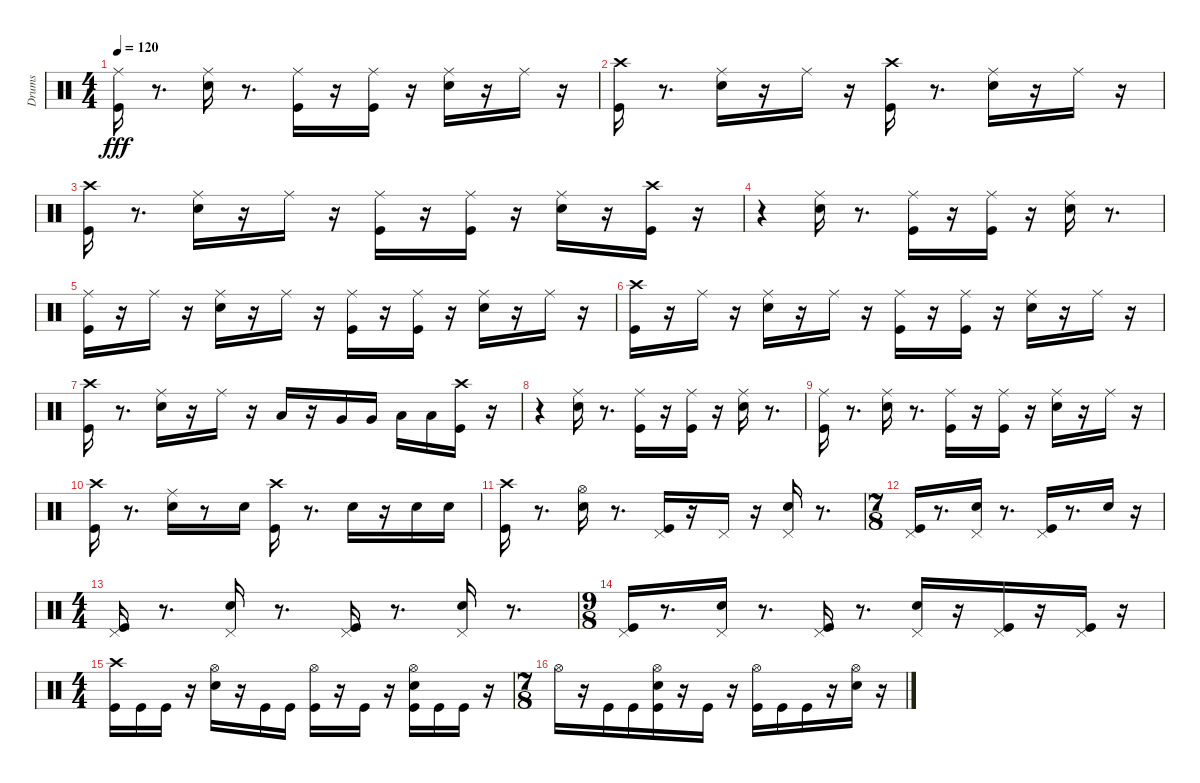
\track ("Drums" "Drums") {instrument percussion}
\staff {score}
\articulation defaults
\ts (4 4)
\tempo 120
\clef neutral
\ks c
("Ride (middle)" "Kick (hit)").16{dy fff} r.8{d} ("Snare (hit) 2" "Ride (middle)").16 r.8{d} ("Kick (hit)" "Ride (middle)").16 r.16 ("Kick (hit)" "Ride (middle)").16 r.16 ("Snare (hit) 2" "Ride (middle)").16 r.16 "Ride (middle)".16 r.16 |
("Crash high (hit)" "Kick (hit)").16 r.8{d} ("Ride (middle)" "Snare (hit) 2").16 r.16 "Ride (middle)".16 r.16 ("Crash high (hit)" "Kick (hit)").16 r.8{d} ("Ride (middle)" "Snare (hit) 2").16 r.16 "Ride (middle)".16 r.16 |
("Kick (hit)" "Crash high (hit)").16 r.8{d} ("Snare (hit) 2" "Ride (middle)").16 r.16 "Ride (middle)".16 r.16 ("Kick (hit)" "Ride (middle)").16 r.16 ("Kick (hit)" "Ride (middle)").16 r.16 ("Snare (hit) 2" "Ride (middle)").16 r.16 ("Crash high (hit)" "Kick (hit)").16 r.16 |
r.4 ("Snare (hit) 2" "Ride (middle)").16 r.8{d} ("Kick (hit)" "Ride (middle)").16 r.16 ("Kick (hit)" "Ride (middle)").16 r.16 ("Snare (hit) 2" "Ride (middle)").16 r.8{d} |
("Kick (hit)" "Ride (middle)").16 r.16 "Ride (middle)".16 r.16 ("Snare (hit) 2" "Ride (middle)").16 r.16 "Ride (middle)".16 r.16 ("Kick (hit)" "Ride (middle)").16 r.16 ("Kick (hit)" "Ride (middle)").16 r.16 ("Snare (hit) 2" "Ride (middle)").16 r.16 "Ride (middle)".16 r.16 |
("Crash high (hit)" "Kick (hit)").16 r.16 "Ride (middle)".16 r.16 ("Snare (hit) 2" "Ride (middle)").16 r.16 "Ride (middle)".16 r.16 ("Kick (hit)" "Ride (middle)").16 r.16 ("Kick (hit)" "Ride (middle)").16 r.16 ("Snare (hit) 2" "Ride (middle)").16 r.16 "Ride (middle)".16 r.16 |
("Crash high (hit)" "Kick (hit)").16 r.8{d} ("Ride (middle)" "Snare (hit) 2").16 r.16 "Ride (middle)".16 r.16 "Low Tom (hit)".16 r.16 "Very Low Tom (hit)".16 "Very Low Tom (hit)".16 "Low Floor Tom (hit)".16 "Low Floor Tom (hit)".16 ("Kick (hit)" "Crash high (hit)").16 r.16 |
r.4 ("Snare (hit) 2" "Ride (middle)").16 r.8{d} ("Kick (hit)" "Ride (middle)").16 r.16 ("Kick (hit)" "Ride (middle)").16 r.16 ("Snare (hit) 2" "Ride (middle)").16 r.8{d} |
("Kick (hit)" "Ride (middle)").16 r.8{d} ("Snare (hit) 2" "Ride (middle)").16 r.8{d} ("Kick (hit)" "Ride (middle)").16 r.16 ("Kick (hit)" "Ride (middle)").16 r.16 ("Snare (hit) 2" "Ride (middle)").16 r.16 "Ride (middle)".16 r.16 |
("Crash high (hit)" "Kick (hit)").16 r.8{d} ("Ride (middle)" "Snare (hit) 2").16 r.8 "Snare (hit) 2".16 ("Crash high (hit)" "Kick (hit)").16 r.8{d} "Snare (hit) 2".16 r.16 "Snare (hit) 2".16 "Snare (hit) 2".16 |
("Kick (hit)" "Crash high (hit)").16 r.8{d} ("Snare (hit) 2" "Hi-Hat (open)").16 r.8{d} ("Kick (hit)" "Pedal Hi-Hat (hit)").16 r.16 "Pedal Hi-Hat (hit)".16 r.16 ("Snare (hit) 2" "Pedal Hi-Hat (hit)").16 r.8{d} |
\ts (7 8)
("Kick (hit)" "Pedal Hi-Hat (hit)").16 r.8{d} ("Snare (hit) 2" "Pedal Hi-Hat (hit)").16 r.8{d} ("Kick (hit)" "Pedal Hi-Hat (hit)").16 r.8{d} "Snare (hit) 2".16 r.16 |
\ts (4 4)
("Kick (hit)" "Pedal Hi-Hat (hit)").16 r.8{d} ("Snare (hit) 2" "Pedal Hi-Hat (hit)").16 r.8{d} ("Pedal Hi-Hat (hit)" "Kick (hit)").16 r.8{d} ("Pedal Hi-Hat (hit)" "Snare (hit) 2").16 r.8{d} |
\ts (9 8)
("Pedal Hi-Hat (hit)" "Kick (hit)").16 r.8{d} ("Pedal Hi-Hat (hit)" "Snare (hit) 2").16 r.8{d} ("Kick (hit)" "Pedal Hi-Hat (hit)").16 r.8{d} ("Snare (hit) 2" "Pedal Hi-Hat (hit)").16 r.16 ("Pedal Hi-Hat (hit)" "Kick (hit)").16 r.16 ("Pedal Hi-Hat (hit)" "Kick (hit)").16 r.16 |
\ts (4 4)
("Crash high (hit)" "Kick (hit)").16 "Kick (hit)".16 "Kick (hit)".16 r.16 ("Hi-Hat (open)" "Snare (hit) 2").16 r.16 "Kick (hit)".16 "Kick (hit)".16 ("Hi-Hat (open)" "Kick (hit)").16 r.16 "Kick (hit)".16 r.16 ("Hi-Hat (open)" "Kick (hit)" "Snare (hit) 2").16 "Kick (hit)".16 "Kick (hit)".16 r.16 |
\ts (7 8)
"Hi-Hat (open)".16 r.16 "Kick (hit)".16 "Kick (hit)".16 ("Hi-Hat (open)" "Kick (hit)" "Snare (hit) 2").16 r.16 "Kick (hit)".16 r.16 ("Hi-Hat (open)" "Kick (hit)").16 "Kick (hit)".16 "Kick (hit)".16 r.16 ("Hi-Hat (open)" "Snare (hit) 2").16 r.16
